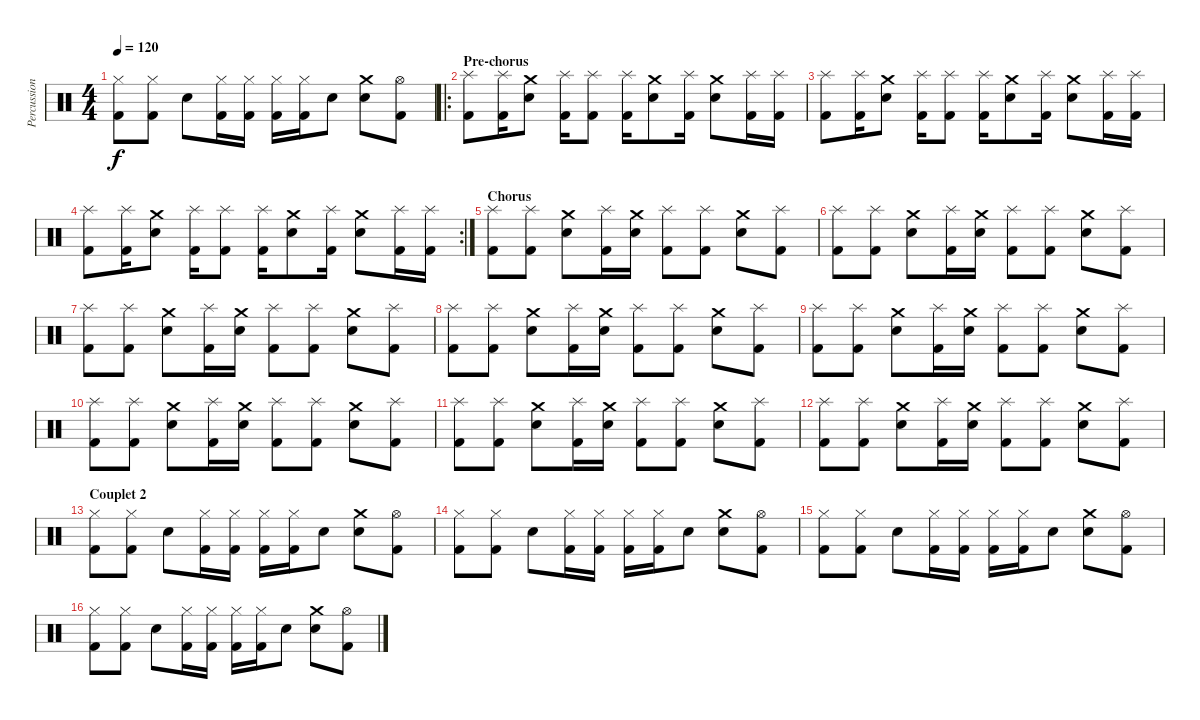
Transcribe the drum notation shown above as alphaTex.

\track ("Percussions" "Percussion") {instrument percussion}
\staff {score}
\articulation defaults
\ts (4 4)
\tempo 120
\clef neutral
\ks c
("Hi-Hat (closed)" "Kick (hit) 2").8{dy f} ("Hi-Hat (closed)" "Kick (hit) 2").8 "Snare (hit) 2".8 ("Hi-Hat (closed)" "Kick (hit) 2").16 ("Hi-Hat (closed)" "Kick (hit) 2").16 ("Hi-Hat (closed)" "Kick (hit) 2").16 ("Hi-Hat (closed)" "Kick (hit) 2").16 "Snare (hit) 2".8 ("Crash medium (hit)" "Snare (hit) 2").8 ("Hi-Hat (open)" "Kick (hit) 2").8 |
\ro
\section ("" "Pre-chorus")
("Splash (hit)" "Kick (hit) 2").8 ("Splash (hit)" "Kick (hit) 2").16 ("Crash medium (hit)" "Snare (hit) 2").8 ("Splash (hit)" "Kick (hit) 2").16 ("Splash (hit)" "Kick (hit) 2").8 ("Splash (hit)" "Kick (hit) 2").16 ("Crash medium (hit)" "Snare (hit) 2").8 ("Splash (hit)" "Kick (hit) 2").16 ("Crash medium (hit)" "Snare (hit) 2").8 ("Splash (hit)" "Kick (hit) 2").16 ("Splash (hit)" "Kick (hit) 2").16 |
("Splash (hit)" "Kick (hit) 2").8 ("Splash (hit)" "Kick (hit) 2").16 ("Crash medium (hit)" "Snare (hit) 2").8 ("Splash (hit)" "Kick (hit) 2").16 ("Splash (hit)" "Kick (hit) 2").8 ("Splash (hit)" "Kick (hit) 2").16 ("Crash medium (hit)" "Snare (hit) 2").8 ("Splash (hit)" "Kick (hit) 2").16 ("Crash medium (hit)" "Snare (hit) 2").8 ("Splash (hit)" "Kick (hit) 2").16 ("Splash (hit)" "Kick (hit) 2").16 |
\rc 2
("Splash (hit)" "Kick (hit) 2").8 ("Splash (hit)" "Kick (hit) 2").16 ("Crash medium (hit)" "Snare (hit) 2").8 ("Splash (hit)" "Kick (hit) 2").16 ("Splash (hit)" "Kick (hit) 2").8 ("Splash (hit)" "Kick (hit) 2").16 ("Crash medium (hit)" "Snare (hit) 2").8 ("Splash (hit)" "Kick (hit) 2").16 ("Crash medium (hit)" "Snare (hit) 2").8 ("Splash (hit)" "Kick (hit) 2").16 ("Splash (hit)" "Kick (hit) 2").16 |
\section ("" "Chorus")
("Splash (hit)" "Kick (hit) 2").8 ("Splash (hit)" "Kick (hit) 2").8 ("Crash medium (hit)" "Snare (hit) 2").8 ("Splash (hit)" "Kick (hit) 2").16 ("Crash medium (hit)" "Snare (hit) 2").16 ("Splash (hit)" "Kick (hit) 2").8 ("Splash (hit)" "Kick (hit) 2").8 ("Crash medium (hit)" "Snare (hit) 2").8 ("Splash (hit)" "Kick (hit) 2").8 |
("Splash (hit)" "Kick (hit) 2").8 ("Splash (hit)" "Kick (hit) 2").8 ("Crash medium (hit)" "Snare (hit) 2").8 ("Splash (hit)" "Kick (hit) 2").16 ("Crash medium (hit)" "Snare (hit) 2").16 ("Splash (hit)" "Kick (hit) 2").8 ("Splash (hit)" "Kick (hit) 2").8 ("Crash medium (hit)" "Snare (hit) 2").8 ("Splash (hit)" "Kick (hit) 2").8 |
("Splash (hit)" "Kick (hit) 2").8 ("Splash (hit)" "Kick (hit) 2").8 ("Crash medium (hit)" "Snare (hit) 2").8 ("Splash (hit)" "Kick (hit) 2").16 ("Crash medium (hit)" "Snare (hit) 2").16 ("Splash (hit)" "Kick (hit) 2").8 ("Splash (hit)" "Kick (hit) 2").8 ("Crash medium (hit)" "Snare (hit) 2").8 ("Splash (hit)" "Kick (hit) 2").8 |
("Splash (hit)" "Kick (hit) 2").8 ("Splash (hit)" "Kick (hit) 2").8 ("Crash medium (hit)" "Snare (hit) 2").8 ("Splash (hit)" "Kick (hit) 2").16 ("Crash medium (hit)" "Snare (hit) 2").16 ("Splash (hit)" "Kick (hit) 2").8 ("Splash (hit)" "Kick (hit) 2").8 ("Crash medium (hit)" "Snare (hit) 2").8 ("Splash (hit)" "Kick (hit) 2").8 |
("Splash (hit)" "Kick (hit) 2").8 ("Splash (hit)" "Kick (hit) 2").8 ("Crash medium (hit)" "Snare (hit) 2").8 ("Splash (hit)" "Kick (hit) 2").16 ("Crash medium (hit)" "Snare (hit) 2").16 ("Splash (hit)" "Kick (hit) 2").8 ("Splash (hit)" "Kick (hit) 2").8 ("Crash medium (hit)" "Snare (hit) 2").8 ("Splash (hit)" "Kick (hit) 2").8 |
("Splash (hit)" "Kick (hit) 2").8 ("Splash (hit)" "Kick (hit) 2").8 ("Crash medium (hit)" "Snare (hit) 2").8 ("Splash (hit)" "Kick (hit) 2").16 ("Crash medium (hit)" "Snare (hit) 2").16 ("Splash (hit)" "Kick (hit) 2").8 ("Splash (hit)" "Kick (hit) 2").8 ("Crash medium (hit)" "Snare (hit) 2").8 ("Splash (hit)" "Kick (hit) 2").8 |
("Splash (hit)" "Kick (hit) 2").8 ("Splash (hit)" "Kick (hit) 2").8 ("Crash medium (hit)" "Snare (hit) 2").8 ("Splash (hit)" "Kick (hit) 2").16 ("Crash medium (hit)" "Snare (hit) 2").16 ("Splash (hit)" "Kick (hit) 2").8 ("Splash (hit)" "Kick (hit) 2").8 ("Crash medium (hit)" "Snare (hit) 2").8 ("Splash (hit)" "Kick (hit) 2").8 |
("Splash (hit)" "Kick (hit) 2").8 ("Splash (hit)" "Kick (hit) 2").8 ("Crash medium (hit)" "Snare (hit) 2").8 ("Splash (hit)" "Kick (hit) 2").16 ("Crash medium (hit)" "Snare (hit) 2").16 ("Splash (hit)" "Kick (hit) 2").8 ("Splash (hit)" "Kick (hit) 2").8 ("Crash medium (hit)" "Snare (hit) 2").8 ("Splash (hit)" "Kick (hit) 2").8 |
\section ("" "Couplet 2")
("Hi-Hat (closed)" "Kick (hit) 2").8 ("Hi-Hat (closed)" "Kick (hit) 2").8 "Snare (hit) 2".8 ("Hi-Hat (closed)" "Kick (hit) 2").16 ("Hi-Hat (closed)" "Kick (hit) 2").16 ("Hi-Hat (closed)" "Kick (hit) 2").16 ("Hi-Hat (closed)" "Kick (hit) 2").16 "Snare (hit) 2".8 ("Crash medium (hit)" "Snare (hit) 2").8 ("Hi-Hat (open)" "Kick (hit) 2").8 |
("Hi-Hat (closed)" "Kick (hit) 2").8 ("Hi-Hat (closed)" "Kick (hit) 2").8 "Snare (hit) 2".8 ("Hi-Hat (closed)" "Kick (hit) 2").16 ("Hi-Hat (closed)" "Kick (hit) 2").16 ("Hi-Hat (closed)" "Kick (hit) 2").16 ("Hi-Hat (closed)" "Kick (hit) 2").16 "Snare (hit) 2".8 ("Crash medium (hit)" "Snare (hit) 2").8 ("Hi-Hat (open)" "Kick (hit) 2").8 |
("Hi-Hat (closed)" "Kick (hit) 2").8 ("Hi-Hat (closed)" "Kick (hit) 2").8 "Snare (hit) 2".8 ("Hi-Hat (closed)" "Kick (hit) 2").16 ("Hi-Hat (closed)" "Kick (hit) 2").16 ("Hi-Hat (closed)" "Kick (hit) 2").16 ("Hi-Hat (closed)" "Kick (hit) 2").16 "Snare (hit) 2".8 ("Crash medium (hit)" "Snare (hit) 2").8 ("Hi-Hat (open)" "Kick (hit) 2").8 |
("Hi-Hat (closed)" "Kick (hit) 2").8 ("Hi-Hat (closed)" "Kick (hit) 2").8 "Snare (hit) 2".8 ("Hi-Hat (closed)" "Kick (hit) 2").16 ("Hi-Hat (closed)" "Kick (hit) 2").16 ("Hi-Hat (closed)" "Kick (hit) 2").16 ("Hi-Hat (closed)" "Kick (hit) 2").16 "Snare (hit) 2".8 ("Crash medium (hit)" "Snare (hit) 2").8 ("Hi-Hat (open)" "Kick (hit) 2").8
